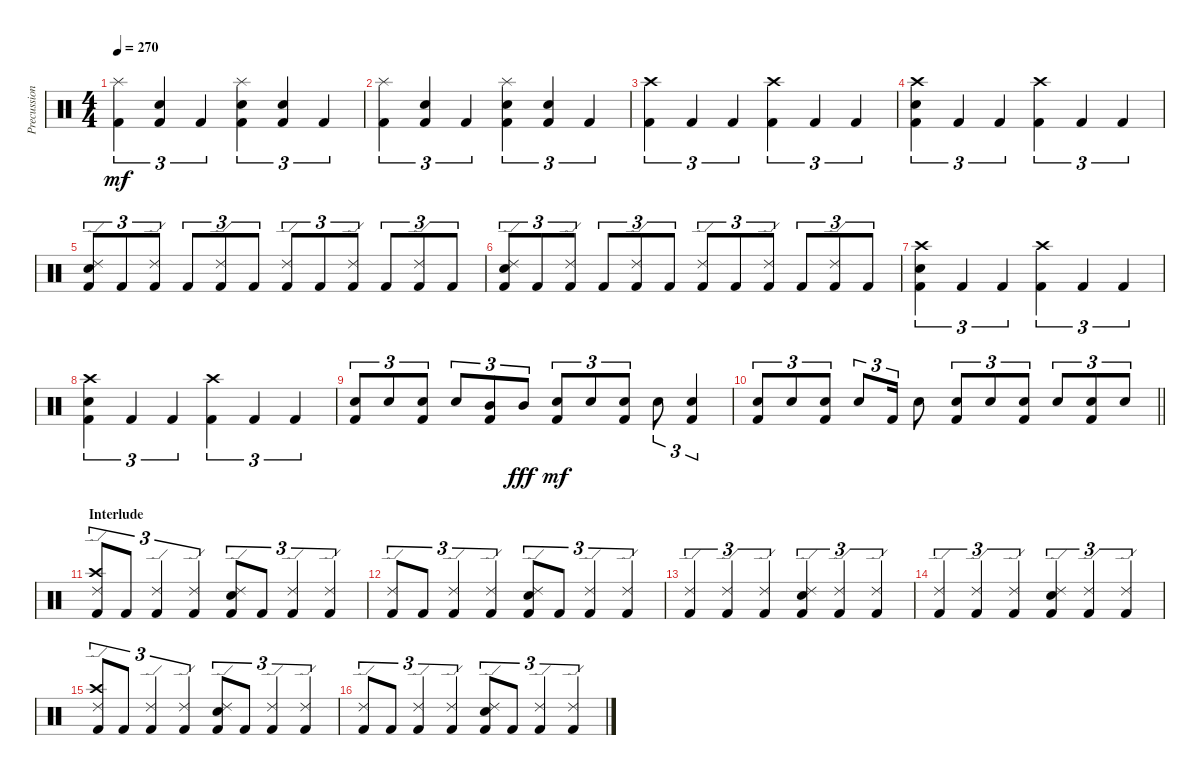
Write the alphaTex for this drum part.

\track ("Precussion" "Precussion") {instrument percussion}
\staff {score}
\articulation defaults
\ts (4 4)
\tempo 270
\clef neutral
\ks c
("Splash (hit)" "Kick (hit) 2").4{tu (3 2) dy mf} ("Electric Snare (hit)" "Kick (hit) 2").4{tu (3 2)} "Kick (hit) 2".4{tu (3 2)} ("Splash (hit)" "Electric Snare (hit)" "Kick (hit) 2").4{tu (3 2)} ("Electric Snare (hit)" "Kick (hit) 2").4{tu (3 2)} "Kick (hit) 2".4{tu (3 2)} |
("Splash (hit)" "Kick (hit) 2").4{tu (3 2)} ("Electric Snare (hit)" "Kick (hit) 2").4{tu (3 2)} "Kick (hit) 2".4{tu (3 2)} ("Splash (hit)" "Electric Snare (hit)" "Kick (hit) 2").4{tu (3 2)} ("Electric Snare (hit)" "Kick (hit) 2").4{tu (3 2)} "Kick (hit) 2".4{tu (3 2)} |
("Crash high (hit)" "Kick (hit) 2").4{tu (3 2)} "Kick (hit) 2".4{tu (3 2)} "Kick (hit) 2".4{tu (3 2)} ("Crash high (hit)" "Kick (hit) 2").4{tu (3 2)} "Kick (hit) 2".4{tu (3 2)} "Kick (hit) 2".4{tu (3 2)} |
("Crash high (hit)" "Electric Snare (hit)" "Kick (hit) 2").4{tu (3 2)} "Kick (hit) 2".4{tu (3 2)} "Kick (hit) 2".4{tu (3 2)} ("Crash high (hit)" "Kick (hit) 2").4{tu (3 2)} "Kick (hit) 2".4{tu (3 2)} "Kick (hit) 2".4{tu (3 2)} |
("Ride (edge) 2" "Electric Snare (hit)" "Kick (hit) 2").8{tu (3 2)} "Kick (hit) 2".8{tu (3 2)} ("Ride (edge) 2" "Kick (hit) 2").8{tu (3 2)} "Kick (hit) 2".8{tu (3 2)} ("Ride (edge) 2" "Kick (hit) 2").8{tu (3 2)} "Kick (hit) 2".8{tu (3 2)} ("Ride (edge) 2" "Kick (hit) 2").8{tu (3 2)} "Kick (hit) 2".8{tu (3 2)} ("Ride (edge) 2" "Kick (hit) 2").8{tu (3 2)} "Kick (hit) 2".8{tu (3 2)} ("Ride (edge) 2" "Kick (hit) 2").8{tu (3 2)} "Kick (hit) 2".8{tu (3 2)} |
("Ride (edge) 2" "Electric Snare (hit)" "Kick (hit) 2").8{tu (3 2)} "Kick (hit) 2".8{tu (3 2)} ("Ride (edge) 2" "Kick (hit) 2").8{tu (3 2)} "Kick (hit) 2".8{tu (3 2)} ("Ride (edge) 2" "Kick (hit) 2").8{tu (3 2)} "Kick (hit) 2".8{tu (3 2)} ("Ride (edge) 2" "Kick (hit) 2").8{tu (3 2)} "Kick (hit) 2".8{tu (3 2)} ("Ride (edge) 2" "Kick (hit) 2").8{tu (3 2)} "Kick (hit) 2".8{tu (3 2)} ("Ride (edge) 2" "Kick (hit) 2").8{tu (3 2)} "Kick (hit) 2".8{tu (3 2)} |
("Crash high (hit)" "Electric Snare (hit)" "Kick (hit) 2").4{tu (3 2)} "Kick (hit) 2".4{tu (3 2)} "Kick (hit) 2".4{tu (3 2)} ("Crash high (hit)" "Kick (hit) 2").4{tu (3 2)} "Kick (hit) 2".4{tu (3 2)} "Kick (hit) 2".4{tu (3 2)} |
("Crash high (hit)" "Electric Snare (hit)" "Kick (hit) 2").4{tu (3 2)} "Kick (hit) 2".4{tu (3 2)} "Kick (hit) 2".4{tu (3 2)} ("Crash high (hit)" "Kick (hit) 2").4{tu (3 2)} "Kick (hit) 2".4{tu (3 2)} "Kick (hit) 2".4{tu (3 2)} |
("Electric Snare (hit)" "Kick (hit) 2").8{tu (3 2)} "Electric Snare (hit)".8{tu (3 2)} ("Electric Snare (hit)" "Kick (hit) 2").8{tu (3 2)} "Electric Snare (hit)".8{tu (3 2)} ("Mid Tom (hit)" "Kick (hit) 2").8{tu (3 2)} "Mid Tom (hit)".8{tu (3 2) dy fff} ("Electric Snare (hit)" "Kick (hit) 2").8{tu (3 2) dy mf} "Electric Snare (hit)".8{tu (3 2)} ("Electric Snare (hit)" "Kick (hit) 2").8{tu (3 2)} "Electric Snare (hit)".8{tu (3 2)} ("Electric Snare (hit)" "Kick (hit) 2").4{tu (3 2)} |
\barLineRight lightlight
("Electric Snare (hit)" "Kick (hit) 2").8{tu (3 2)} "Electric Snare (hit)".8{tu (3 2)} ("Electric Snare (hit)" "Kick (hit) 2").8{tu (3 2)} "Electric Snare (hit)".8{tu (3 2)} "Kick (hit) 2".16{tu (3 2)} "Electric Snare (hit)".8 ("Electric Snare (hit)" "Kick (hit) 2").8{tu (3 2)} "Electric Snare (hit)".8{tu (3 2)} ("Electric Snare (hit)" "Kick (hit) 2").8{tu (3 2)} "Electric Snare (hit)".8{tu (3 2)} ("Electric Snare (hit)" "Kick (hit) 2").8{tu (3 2)} "Electric Snare (hit)".8{tu (3 2)} |
\section ("" "Interlude")
("Crash high (hit)" "Ride (edge) 2" "Kick (hit) 2").8{tu (3 2)} "Kick (hit) 2".8{tu (3 2)} ("Ride (edge) 2" "Kick (hit) 2").4{tu (3 2)} ("Ride (edge) 2" "Kick (hit) 2").4{tu (3 2)} ("Ride (edge) 2" "Electric Snare (hit)" "Kick (hit) 2").8{tu (3 2)} "Kick (hit) 2".8{tu (3 2)} ("Ride (edge) 2" "Kick (hit) 2").4{tu (3 2)} ("Ride (edge) 2" "Kick (hit) 2").4{tu (3 2)} |
("Ride (edge) 2" "Kick (hit) 2").8{tu (3 2)} "Kick (hit) 2".8{tu (3 2)} ("Ride (edge) 2" "Kick (hit) 2").4{tu (3 2)} ("Ride (edge) 2" "Kick (hit) 2").4{tu (3 2)} ("Ride (edge) 2" "Electric Snare (hit)" "Kick (hit) 2").8{tu (3 2)} "Kick (hit) 2".8{tu (3 2)} ("Ride (edge) 2" "Kick (hit) 2").4{tu (3 2)} ("Ride (edge) 2" "Kick (hit) 2").4{tu (3 2)} |
("Ride (edge) 2" "Kick (hit) 2").4{tu (3 2)} ("Ride (edge) 2" "Kick (hit) 2").4{tu (3 2)} ("Ride (edge) 2" "Kick (hit) 2").4{tu (3 2)} ("Ride (edge) 2" "Electric Snare (hit)" "Kick (hit) 2").4{tu (3 2)} ("Ride (edge) 2" "Kick (hit) 2").4{tu (3 2)} ("Ride (edge) 2" "Kick (hit) 2").4{tu (3 2)} |
("Ride (edge) 2" "Kick (hit) 2").4{tu (3 2)} ("Ride (edge) 2" "Kick (hit) 2").4{tu (3 2)} ("Ride (edge) 2" "Kick (hit) 2").4{tu (3 2)} ("Ride (edge) 2" "Electric Snare (hit)" "Kick (hit) 2").4{tu (3 2)} ("Ride (edge) 2" "Kick (hit) 2").4{tu (3 2)} ("Ride (edge) 2" "Kick (hit) 2").4{tu (3 2)} |
("Crash high (hit)" "Ride (edge) 2" "Kick (hit) 2").8{tu (3 2)} "Kick (hit) 2".8{tu (3 2)} ("Ride (edge) 2" "Kick (hit) 2").4{tu (3 2)} ("Ride (edge) 2" "Kick (hit) 2").4{tu (3 2)} ("Ride (edge) 2" "Electric Snare (hit)" "Kick (hit) 2").8{tu (3 2)} "Kick (hit) 2".8{tu (3 2)} ("Ride (edge) 2" "Kick (hit) 2").4{tu (3 2)} ("Ride (edge) 2" "Kick (hit) 2").4{tu (3 2)} |
("Ride (edge) 2" "Kick (hit) 2").8{tu (3 2)} "Kick (hit) 2".8{tu (3 2)} ("Ride (edge) 2" "Kick (hit) 2").4{tu (3 2)} ("Ride (edge) 2" "Kick (hit) 2").4{tu (3 2)} ("Ride (edge) 2" "Electric Snare (hit)" "Kick (hit) 2").8{tu (3 2)} "Kick (hit) 2".8{tu (3 2)} ("Ride (edge) 2" "Kick (hit) 2").4{tu (3 2)} ("Ride (edge) 2" "Kick (hit) 2").4{tu (3 2)}
